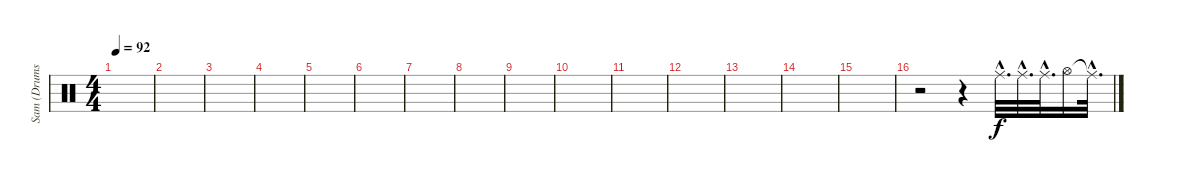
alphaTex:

\track ("Sam (Drums)" "Sam (Drums") {instrument percussion}
\staff {score}
\articulation defaults
\ts (4 4)
\tempo 92
\clef neutral
\ks c
|
|
|
|
|
|
|
|
|
|
|
|
|
|
|
r.2 r.4 "Ride (middle)"{hac}.32{d} "Ride (middle)"{hac}.32{d} "Ride (middle)"{hac}.32{d} "Hi-Hat (open)".16 "Ride (middle)"{hac t}.32{d}
